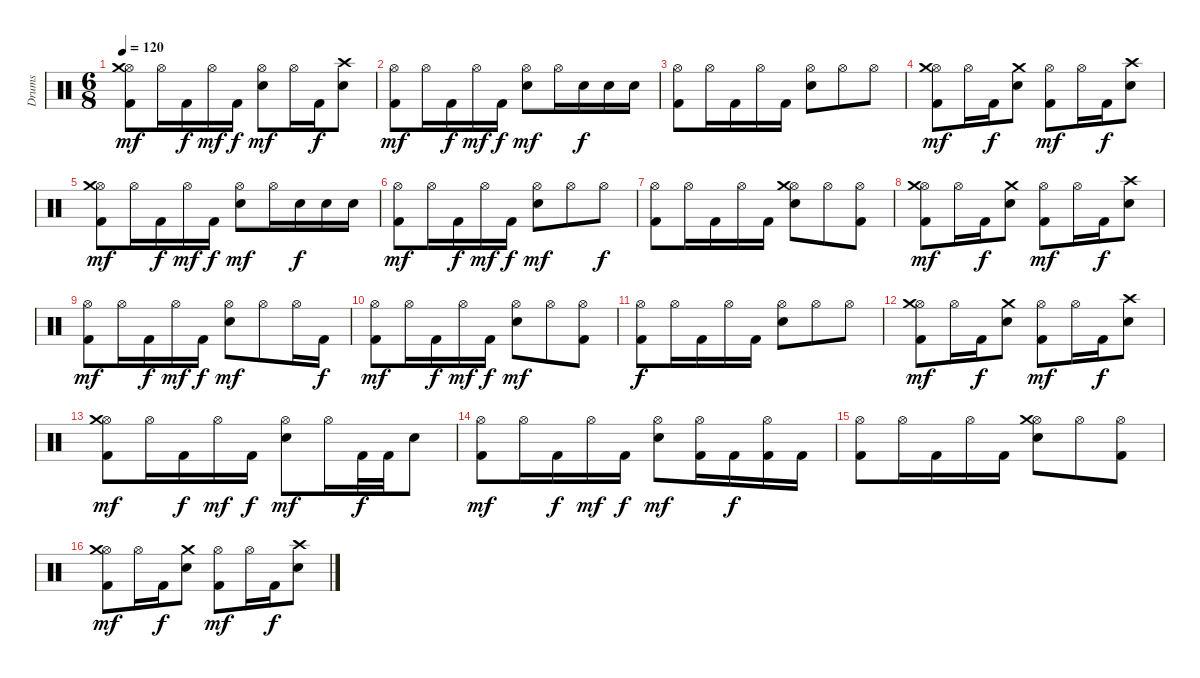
\track ("Drums" "Drums") {instrument percussion}
\staff {score}
\articulation defaults
\ts (6 8)
\tempo 120
\clef neutral
\ks c
("Kick (hit) 2" "Hi-Hat (open)" "Crash medium (hit)").8{dy mf} "Hi-Hat (open)".16 "Kick (hit) 2".16{dy f} "Hi-Hat (open)".16{dy mf} "Kick (hit) 2".16{dy f} ("Snare (hit) 2" "Hi-Hat (open)").8{dy mf} "Hi-Hat (open)".16 "Kick (hit) 2".16{dy f} ("Snare (hit) 2" "Crash high (hit)").8 |
("Kick (hit) 2" "Hi-Hat (open)").8{dy mf} "Hi-Hat (open)".16 "Kick (hit) 2".16{dy f} "Hi-Hat (open)".16{dy mf} "Kick (hit) 2".16{dy f} ("Snare (hit) 2" "Hi-Hat (open)").8{dy mf} "Hi-Hat (open)".16 "Snare (hit) 2".16{dy f} "Snare (hit) 2".16 "Snare (hit) 2".16 |
("Kick (hit) 2" "Hi-Hat (open)").8 "Hi-Hat (open)".16 "Kick (hit) 2".16 "Hi-Hat (open)".16 "Kick (hit) 2".16 ("Snare (hit) 2" "Hi-Hat (open)").8 "Hi-Hat (open)".8 "Hi-Hat (open)".8 |
("Kick (hit) 2" "Hi-Hat (open)" "Crash medium (hit)").8{dy mf} "Hi-Hat (open)".16 "Kick (hit) 2".16{dy f} ("Snare (hit) 2" "Crash medium (hit)").8 ("Kick (hit) 2" "Hi-Hat (open)").8{dy mf} "Hi-Hat (open)".16 "Kick (hit) 2".16{dy f} ("Snare (hit) 2" "Crash high (hit)").8 |
("Kick (hit) 2" "Hi-Hat (open)" "Crash medium (hit)").8{dy mf} "Hi-Hat (open)".16 "Kick (hit) 2".16{dy f} "Hi-Hat (open)".16{dy mf} "Kick (hit) 2".16{dy f} ("Snare (hit) 2" "Hi-Hat (open)").8{dy mf} "Hi-Hat (open)".16 "Snare (hit) 2".16{dy f} "Snare (hit) 2".16 "Snare (hit) 2".16 |
("Kick (hit) 2" "Hi-Hat (open)").8{dy mf} "Hi-Hat (open)".16 "Kick (hit) 2".16{dy f} "Hi-Hat (open)".16{dy mf} "Kick (hit) 2".16{dy f} ("Snare (hit) 2" "Hi-Hat (open)").8{dy mf} "Hi-Hat (open)".8 "Hi-Hat (open)".8{dy f} |
("Kick (hit) 2" "Hi-Hat (open)").8 "Hi-Hat (open)".16 "Kick (hit) 2".16 "Hi-Hat (open)".16 "Kick (hit) 2".16 ("Snare (hit) 2" "Hi-Hat (open)" "Crash medium (hit)").8 "Hi-Hat (open)".8 ("Kick (hit) 2" "Hi-Hat (open)").8 |
("Kick (hit) 2" "Hi-Hat (open)" "Crash medium (hit)").8{dy mf} "Hi-Hat (open)".16 "Kick (hit) 2".16{dy f} ("Snare (hit) 2" "Crash medium (hit)").8 ("Kick (hit) 2" "Hi-Hat (open)").8{dy mf} "Hi-Hat (open)".16 "Kick (hit) 2".16{dy f} ("Snare (hit) 2" "Crash high (hit)").8 |
("Kick (hit) 2" "Hi-Hat (open)").8{dy mf} "Hi-Hat (open)".16 "Kick (hit) 2".16{dy f} "Hi-Hat (open)".16{dy mf} "Kick (hit) 2".16{dy f} ("Snare (hit) 2" "Hi-Hat (open)").8{dy mf} "Hi-Hat (open)".8 "Hi-Hat (open)".16 "Kick (hit) 2".16{dy f} |
("Kick (hit) 2" "Hi-Hat (open)").8{dy mf} "Hi-Hat (open)".16 "Kick (hit) 2".16{dy f} "Hi-Hat (open)".16{dy mf} "Kick (hit) 2".16{dy f} ("Snare (hit) 2" "Hi-Hat (open)").8{dy mf} "Hi-Hat (open)".8 ("Kick (hit) 2" "Hi-Hat (open)").8 |
("Kick (hit) 2" "Hi-Hat (open)").8{dy f} "Hi-Hat (open)".16 "Kick (hit) 2".16 "Hi-Hat (open)".16 "Kick (hit) 2".16 ("Snare (hit) 2" "Hi-Hat (open)").8 "Hi-Hat (open)".8 "Hi-Hat (open)".8 |
("Kick (hit) 2" "Hi-Hat (open)" "Crash medium (hit)").8{dy mf} "Hi-Hat (open)".16 "Kick (hit) 2".16{dy f} ("Snare (hit) 2" "Crash medium (hit)").8 ("Kick (hit) 2" "Hi-Hat (open)").8{dy mf} "Hi-Hat (open)".16 "Kick (hit) 2".16{dy f} ("Snare (hit) 2" "Crash high (hit)").8 |
("Kick (hit) 2" "Hi-Hat (open)" "Crash medium (hit)").8{dy mf} "Hi-Hat (open)".16 "Kick (hit) 2".16{dy f} "Hi-Hat (open)".16{dy mf} "Kick (hit) 2".16{dy f} ("Snare (hit) 2" "Hi-Hat (open)").8{dy mf} "Hi-Hat (open)".16 "Kick (hit) 2".32{dy f} "Kick (hit) 2".32 "Snare (hit) 2".8 |
("Kick (hit) 2" "Hi-Hat (open)").8{dy mf} "Hi-Hat (open)".16 "Kick (hit) 2".16{dy f} "Hi-Hat (open)".16{dy mf} "Kick (hit) 2".16{dy f} ("Snare (hit) 2" "Hi-Hat (open)").8{dy mf} ("Kick (hit) 2" "Hi-Hat (open)").16 "Kick (hit) 2".16{dy f} ("Kick (hit) 2" "Hi-Hat (open)").16 "Kick (hit) 2".16 |
("Kick (hit) 2" "Hi-Hat (open)").8 "Hi-Hat (open)".16 "Kick (hit) 2".16 "Hi-Hat (open)".16 "Kick (hit) 2".16 ("Snare (hit) 2" "Hi-Hat (open)" "Crash medium (hit)").8 "Hi-Hat (open)".8 ("Kick (hit) 2" "Hi-Hat (open)").8 |
("Kick (hit) 2" "Hi-Hat (open)" "Crash medium (hit)").8{dy mf} "Hi-Hat (open)".16 "Kick (hit) 2".16{dy f} ("Snare (hit) 2" "Crash medium (hit)").8 ("Kick (hit) 2" "Hi-Hat (open)").8{dy mf} "Hi-Hat (open)".16 "Kick (hit) 2".16{dy f} ("Snare (hit) 2" "Crash high (hit)").8
